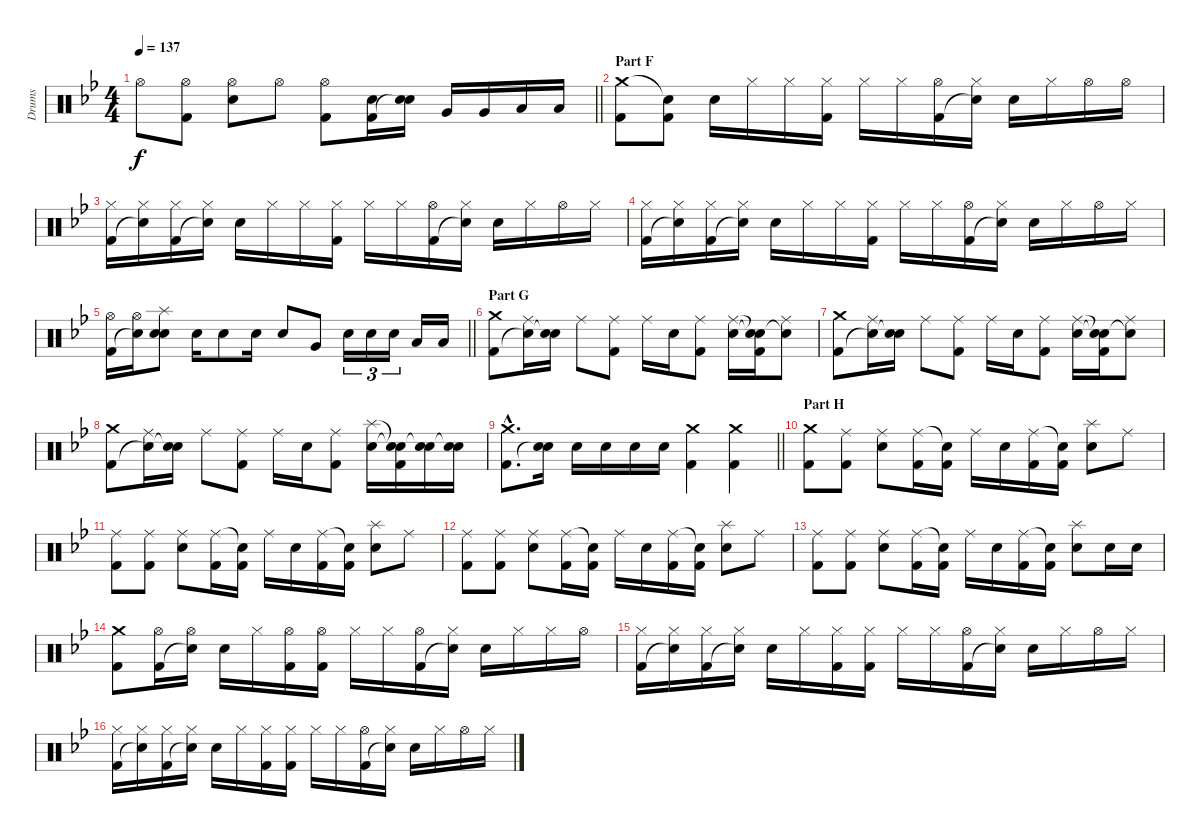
\track ("Drums" "Drums") {instrument percussion}
\staff {score}
\articulation defaults
\ts (4 4)
\tempo 137
\clef neutral
\barLineRight lightlight
\ks bb "Hi-Hat (open)".8{dy f}
("Hi-Hat (open)" "Kick (hit) 2").8 ("Hi-Hat (open)" "Electric Snare (hit)").8 "Hi-Hat (open)".8 ("Hi-Hat (open)" "Kick (hit) 2").8 ("Electric Snare (hit)" "Kick (hit) 2").16 ("Electric Snare (hit)" "Snare (hit)"{t}).16 "Very Low Tom (hit)".16 "Very Low Tom (hit)".16 "Low Floor Tom (hit)".16 "Low Floor Tom (hit)".16 |
\section ("" "Part F")
("Crash medium (hit)" "Kick (hit) 2").8 ("Snare (hit)"{t} "Kick (hit) 2").8 "Electric Snare (hit)".16 "Hi-Hat (closed)".16 "Hi-Hat (closed)".16 ("Hi-Hat (closed)" "Kick (hit) 2").16 "Hi-Hat (closed)".16 "Hi-Hat (closed)".16 ("Hi-Hat (open)" "Kick (hit) 2").16 ("Hi-Hat (closed)" "Snare (hit)"{t}).16 "Electric Snare (hit)".16 "Hi-Hat (closed)".16 "Hi-Hat (open)".16 "Hi-Hat (open)".16 |
("Hi-Hat (closed)" "Kick (hit) 2").16 ("Hi-Hat (closed)" "Snare (hit)"{t}).16 ("Hi-Hat (closed)" "Kick (hit) 2").16 ("Hi-Hat (closed)" "Snare (hit)"{t}).16 "Electric Snare (hit)".16 "Hi-Hat (closed)".16 "Hi-Hat (closed)".16 ("Hi-Hat (closed)" "Kick (hit) 2").16 "Hi-Hat (closed)".16 "Hi-Hat (closed)".16 ("Hi-Hat (open)" "Kick (hit) 2").16 ("Hi-Hat (closed)" "Snare (hit)"{t}).16 "Electric Snare (hit)".16 "Hi-Hat (closed)".16 "Hi-Hat (open)".16 "Hi-Hat (closed)".16 |
("Hi-Hat (closed)" "Kick (hit) 2").16 ("Hi-Hat (closed)" "Snare (hit)"{t}).16 ("Hi-Hat (closed)" "Kick (hit) 2").16 ("Hi-Hat (closed)" "Snare (hit)"{t}).16 "Electric Snare (hit)".16 "Hi-Hat (closed)".16 "Hi-Hat (closed)".16 ("Hi-Hat (closed)" "Kick (hit) 2").16 "Hi-Hat (closed)".16 "Hi-Hat (closed)".16 ("Hi-Hat (open)" "Kick (hit) 2").16 ("Hi-Hat (closed)" "Snare (hit)"{t}).16 "Electric Snare (hit)".16 "Hi-Hat (closed)".16 "Hi-Hat (open)".16 "Hi-Hat (closed)".16 |
\barLineRight lightlight
("Hi-Hat (open)" "Kick (hit) 2").16 ("Hi-Hat (open)" "Snare (hit)"{t}).16 ("Splash (hit)" "Electric Snare (hit)" "Snare (hit)").8 "Electric Snare (hit)".16 "Electric Snare (hit)".8 "Electric Snare (hit)".16 "Electric Snare (hit)".8 "Very Low Tom (hit)".8 "Electric Snare (hit)".16{tu (3 2)} "Electric Snare (hit)".16{tu (3 2)} "Electric Snare (hit)".16{tu (3 2)} "Low Floor Tom (hit)".16 "Low Floor Tom (hit)".16 |
\section ("" "Part G")
("Crash medium (hit)" "Kick (hit) 2").8 ("Ride (middle)" "Snare (hit)"{t}).16 ("Electric Snare (hit)" "Snare (hit)"{t}).16 "Ride (middle)".8 ("Ride (middle)" "Kick (hit) 2").8 "Ride (middle)".16 "Electric Snare (hit)".16 ("Ride (middle)" "Kick (hit) 2").8 ("Ride (middle)" "Electric Snare (hit)").16 ("Snare (hit)"{t} "Snare (hit)"{t} "Kick (hit) 2").16 ("Ride (middle)" "Snare (hit)"{t}).8 |
("Crash medium (hit)" "Kick (hit) 2").8 ("Ride (middle)" "Snare (hit)"{t}).16 ("Electric Snare (hit)" "Snare (hit)"{t}).16 "Ride (middle)".8 ("Ride (middle)" "Kick (hit) 2").8 "Ride (middle)".16 "Electric Snare (hit)".16 ("Ride (middle)" "Kick (hit) 2").8 ("Ride (middle)" "Electric Snare (hit)").16 ("Snare (hit)"{t} "Snare (hit)"{t} "Kick (hit) 2").16 ("Ride (middle)" "Snare (hit)"{t}).8 |
("Crash medium (hit)" "Kick (hit) 2").8 ("Ride (middle)" "Snare (hit)"{t}).16 ("Electric Snare (hit)" "Snare (hit)"{t}).16 "Ride (middle)".8 ("Ride (middle)" "Kick (hit) 2").8 "Ride (middle)".16 "Electric Snare (hit)".16 ("Ride (middle)" "Kick (hit) 2").8 ("Splash (hit)" "Electric Snare (hit)").16 ("Snare (hit)"{t} "Snare (hit)"{t} "Kick (hit) 2").16 ("Electric Snare (hit)" "Snare (hit)"{t}).16 ("Electric Snare (hit)" "Snare (hit)"{t}).16 |
\barLineRight lightlight
("Crash medium (hit)"{hac} "Kick (hit) 2"{hac}).8{d} ("Electric Snare (hit)" "Snare (hit)"{t}).16 "Electric Snare (hit)".16 "Electric Snare (hit)".16 "Electric Snare (hit)".16 "Electric Snare (hit)".16 ("Crash medium (hit)" "Kick (hit) 2").4 ("Crash medium (hit)" "Kick (hit) 2").4 |
\section ("" "Part H")
("Crash medium (hit)" "Kick (hit) 2").8 ("Ride (middle)" "Kick (hit) 2").8 ("Ride (middle)" "Electric Snare (hit)").8 ("Ride (middle)" "Kick (hit) 2").16 ("Snare (hit)"{t} "Kick (hit) 2").16 "Ride (middle)".16 "Electric Snare (hit)".16 ("Ride (middle)" "Kick (hit) 2").16 ("Snare (hit)"{t} "Kick (hit) 2").16 ("Splash (hit)" "Electric Snare (hit)").8 "Ride (middle)".8 |
("Ride (middle)" "Kick (hit) 2").8 ("Ride (middle)" "Kick (hit) 2").8 ("Ride (middle)" "Electric Snare (hit)").8 ("Ride (middle)" "Kick (hit) 2").16 ("Snare (hit)"{t} "Kick (hit) 2").16 "Ride (middle)".16 "Electric Snare (hit)".16 ("Ride (middle)" "Kick (hit) 2").16 ("Snare (hit)"{t} "Kick (hit) 2").16 ("Splash (hit)" "Electric Snare (hit)").8 "Ride (middle)".8 |
("Ride (middle)" "Kick (hit) 2").8 ("Ride (middle)" "Kick (hit) 2").8 ("Ride (middle)" "Electric Snare (hit)").8 ("Ride (middle)" "Kick (hit) 2").16 ("Snare (hit)"{t} "Kick (hit) 2").16 "Ride (middle)".16 "Electric Snare (hit)".16 ("Ride (middle)" "Kick (hit) 2").16 ("Snare (hit)"{t} "Kick (hit) 2").16 ("Splash (hit)" "Electric Snare (hit)").8 "Ride (middle)".8 |
("Ride (middle)" "Kick (hit) 2").8 ("Ride (middle)" "Kick (hit) 2").8 ("Ride (middle)" "Electric Snare (hit)").8 ("Ride (middle)" "Kick (hit) 2").16 ("Snare (hit)"{t} "Kick (hit) 2").16 "Ride (middle)".16 "Electric Snare (hit)".16 ("Ride (middle)" "Kick (hit) 2").16 ("Snare (hit)"{t} "Kick (hit) 2").16 ("Splash (hit)" "Electric Snare (hit)").8 "Electric Snare (hit)".16 "Electric Snare (hit)".16 |
("Crash medium (hit)" "Kick (hit) 2").8 ("Hi-Hat (open)" "Kick (hit) 2").16 ("Hi-Hat (open)" "Snare (hit)"{t}).16 "Electric Snare (hit)".16 "Hi-Hat (closed)".16 ("Hi-Hat (open)" "Kick (hit) 2").16 ("Hi-Hat (open)" "Kick (hit) 2").16 "Hi-Hat (closed)".16 "Hi-Hat (closed)".16 ("Hi-Hat (open)" "Kick (hit) 2").16 ("Hi-Hat (closed)" "Snare (hit)"{t}).16 "Electric Snare (hit)".16 "Hi-Hat (closed)".16 "Hi-Hat (closed)".16 "Hi-Hat (open)".16 |
("Hi-Hat (closed)" "Kick (hit) 2").16 ("Hi-Hat (closed)" "Snare (hit)"{t}).16 ("Hi-Hat (closed)" "Kick (hit) 2").16 ("Hi-Hat (closed)" "Snare (hit)"{t}).16 "Electric Snare (hit)".16 "Hi-Hat (closed)".16 ("Hi-Hat (closed)" "Kick (hit) 2").16 ("Hi-Hat (closed)" "Kick (hit) 2").16 "Hi-Hat (closed)".16 "Hi-Hat (closed)".16 ("Hi-Hat (open)" "Kick (hit) 2").16 ("Hi-Hat (closed)" "Snare (hit)"{t}).16 "Electric Snare (hit)".16 "Hi-Hat (closed)".16 "Hi-Hat (open)".16 "Hi-Hat (closed)".16 |
("Hi-Hat (closed)" "Kick (hit) 2").16 ("Hi-Hat (closed)" "Snare (hit)"{t}).16 ("Hi-Hat (closed)" "Kick (hit) 2").16 ("Hi-Hat (closed)" "Snare (hit)"{t}).16 "Electric Snare (hit)".16 "Hi-Hat (closed)".16 ("Hi-Hat (closed)" "Kick (hit) 2").16 ("Hi-Hat (closed)" "Kick (hit) 2").16 "Hi-Hat (closed)".16 "Hi-Hat (closed)".16 ("Hi-Hat (open)" "Kick (hit) 2").16 ("Hi-Hat (closed)" "Snare (hit)"{t}).16 "Electric Snare (hit)".16 "Hi-Hat (closed)".16 "Hi-Hat (open)".16 "Hi-Hat (closed)".16
